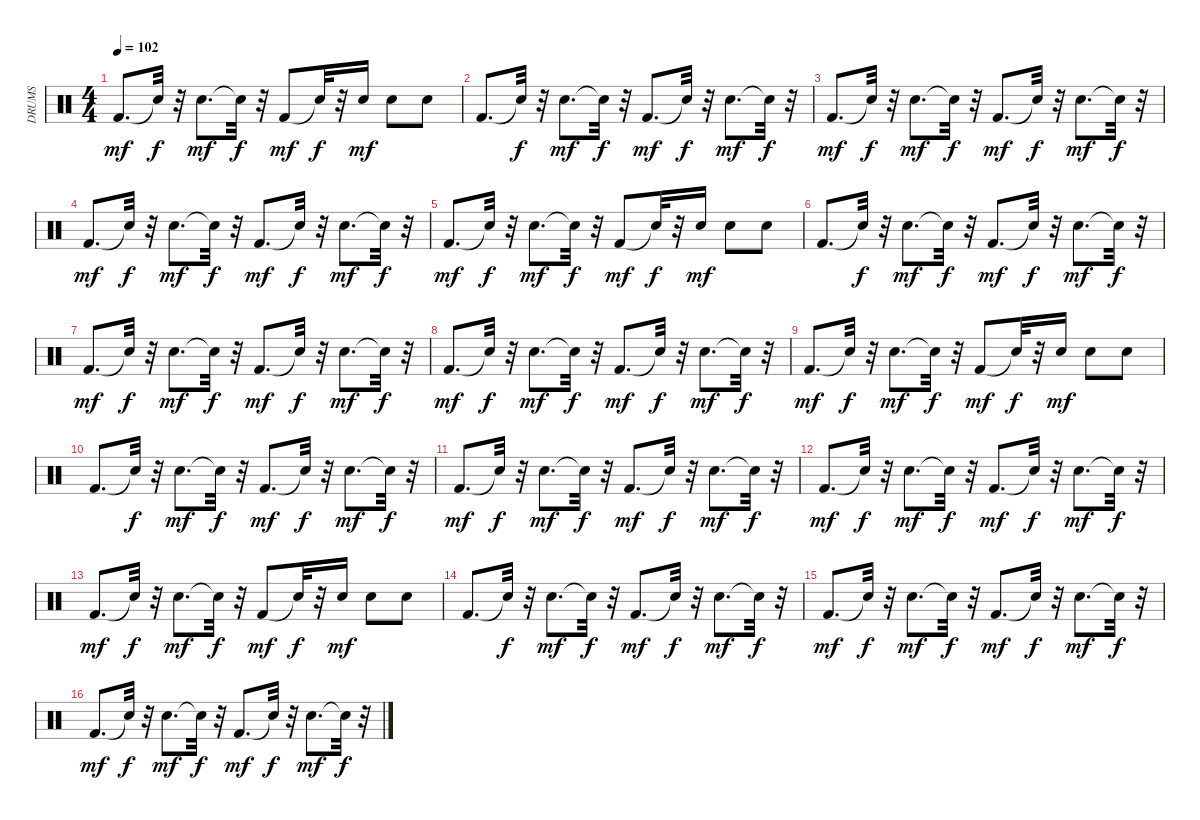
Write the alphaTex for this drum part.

\track ("DRUMS" "DRUMS") {instrument percussion}
\staff {score}
\articulation defaults
\ts (4 4)
\tempo 102
\clef neutral
\ks c "Kick (hit) 2".8{d dy mf} "Snare (hit)"{t}.32{dy f}
r.32 "Snare (hit) 2".8{d dy mf} "Snare (hit)"{t}.32{dy f} r.32 "Kick (hit) 2".8{dy mf} "Snare (hit)"{t}.32{dy f} r.32 "Snare (hit) 2".16{dy mf} "Snare (hit) 2".8 "Snare (hit) 2".8 |
"Kick (hit) 2".8{d} "Snare (hit)"{t}.32{dy f} r.32 "Snare (hit) 2".8{d dy mf} "Snare (hit)"{t}.32{dy f} r.32 "Kick (hit) 2".8{d dy mf} "Snare (hit)"{t}.32{dy f} r.32 "Snare (hit) 2".8{d dy mf} "Snare (hit)"{t}.32{dy f} r.32 |
"Kick (hit) 2".8{d dy mf} "Snare (hit)"{t}.32{dy f} r.32 "Snare (hit) 2".8{d dy mf} "Snare (hit)"{t}.32{dy f} r.32 "Kick (hit) 2".8{d dy mf} "Snare (hit)"{t}.32{dy f} r.32 "Snare (hit) 2".8{d dy mf} "Snare (hit)"{t}.32{dy f} r.32 |
"Kick (hit) 2".8{d dy mf} "Snare (hit)"{t}.32{dy f} r.32 "Snare (hit) 2".8{d dy mf} "Snare (hit)"{t}.32{dy f} r.32 "Kick (hit) 2".8{d dy mf} "Snare (hit)"{t}.32{dy f} r.32 "Snare (hit) 2".8{d dy mf} "Snare (hit)"{t}.32{dy f} r.32 |
"Kick (hit) 2".8{d dy mf} "Snare (hit)"{t}.32{dy f} r.32 "Snare (hit) 2".8{d dy mf} "Snare (hit)"{t}.32{dy f} r.32 "Kick (hit) 2".8{dy mf} "Snare (hit)"{t}.32{dy f} r.32 "Snare (hit) 2".16{dy mf} "Snare (hit) 2".8 "Snare (hit) 2".8 |
"Kick (hit) 2".8{d} "Snare (hit)"{t}.32{dy f} r.32 "Snare (hit) 2".8{d dy mf} "Snare (hit)"{t}.32{dy f} r.32 "Kick (hit) 2".8{d dy mf} "Snare (hit)"{t}.32{dy f} r.32 "Snare (hit) 2".8{d dy mf} "Snare (hit)"{t}.32{dy f} r.32 |
"Kick (hit) 2".8{d dy mf} "Snare (hit)"{t}.32{dy f} r.32 "Snare (hit) 2".8{d dy mf} "Snare (hit)"{t}.32{dy f} r.32 "Kick (hit) 2".8{d dy mf} "Snare (hit)"{t}.32{dy f} r.32 "Snare (hit) 2".8{d dy mf} "Snare (hit)"{t}.32{dy f} r.32 |
"Kick (hit) 2".8{d dy mf} "Snare (hit)"{t}.32{dy f} r.32 "Snare (hit) 2".8{d dy mf} "Snare (hit)"{t}.32{dy f} r.32 "Kick (hit) 2".8{d dy mf} "Snare (hit)"{t}.32{dy f} r.32 "Snare (hit) 2".8{d dy mf} "Snare (hit)"{t}.32{dy f} r.32 |
"Kick (hit) 2".8{d dy mf} "Snare (hit)"{t}.32{dy f} r.32 "Snare (hit) 2".8{d dy mf} "Snare (hit)"{t}.32{dy f} r.32 "Kick (hit) 2".8{dy mf} "Snare (hit)"{t}.32{dy f} r.32 "Snare (hit) 2".16{dy mf} "Snare (hit) 2".8 "Snare (hit) 2".8 |
"Kick (hit) 2".8{d} "Snare (hit)"{t}.32{dy f} r.32 "Snare (hit) 2".8{d dy mf} "Snare (hit)"{t}.32{dy f} r.32 "Kick (hit) 2".8{d dy mf} "Snare (hit)"{t}.32{dy f} r.32 "Snare (hit) 2".8{d dy mf} "Snare (hit)"{t}.32{dy f} r.32 |
"Kick (hit) 2".8{d dy mf} "Snare (hit)"{t}.32{dy f} r.32 "Snare (hit) 2".8{d dy mf} "Snare (hit)"{t}.32{dy f} r.32 "Kick (hit) 2".8{d dy mf} "Snare (hit)"{t}.32{dy f} r.32 "Snare (hit) 2".8{d dy mf} "Snare (hit)"{t}.32{dy f} r.32 |
"Kick (hit) 2".8{d dy mf} "Snare (hit)"{t}.32{dy f} r.32 "Snare (hit) 2".8{d dy mf} "Snare (hit)"{t}.32{dy f} r.32 "Kick (hit) 2".8{d dy mf} "Snare (hit)"{t}.32{dy f} r.32 "Snare (hit) 2".8{d dy mf} "Snare (hit)"{t}.32{dy f} r.32 |
"Kick (hit) 2".8{d dy mf} "Snare (hit)"{t}.32{dy f} r.32 "Snare (hit) 2".8{d dy mf} "Snare (hit)"{t}.32{dy f} r.32 "Kick (hit) 2".8{dy mf} "Snare (hit)"{t}.32{dy f} r.32 "Snare (hit) 2".16{dy mf} "Snare (hit) 2".8 "Snare (hit) 2".8 |
"Kick (hit) 2".8{d} "Snare (hit)"{t}.32{dy f} r.32 "Snare (hit) 2".8{d dy mf} "Snare (hit)"{t}.32{dy f} r.32 "Kick (hit) 2".8{d dy mf} "Snare (hit)"{t}.32{dy f} r.32 "Snare (hit) 2".8{d dy mf} "Snare (hit)"{t}.32{dy f} r.32 |
"Kick (hit) 2".8{d dy mf} "Snare (hit)"{t}.32{dy f} r.32 "Snare (hit) 2".8{d dy mf} "Snare (hit)"{t}.32{dy f} r.32 "Kick (hit) 2".8{d dy mf} "Snare (hit)"{t}.32{dy f} r.32 "Snare (hit) 2".8{d dy mf} "Snare (hit)"{t}.32{dy f} r.32 |
"Kick (hit) 2".8{d dy mf} "Snare (hit)"{t}.32{dy f} r.32 "Snare (hit) 2".8{d dy mf} "Snare (hit)"{t}.32{dy f} r.32 "Kick (hit) 2".8{d dy mf} "Snare (hit)"{t}.32{dy f} r.32 "Snare (hit) 2".8{d dy mf} "Snare (hit)"{t}.32{dy f} r.32
